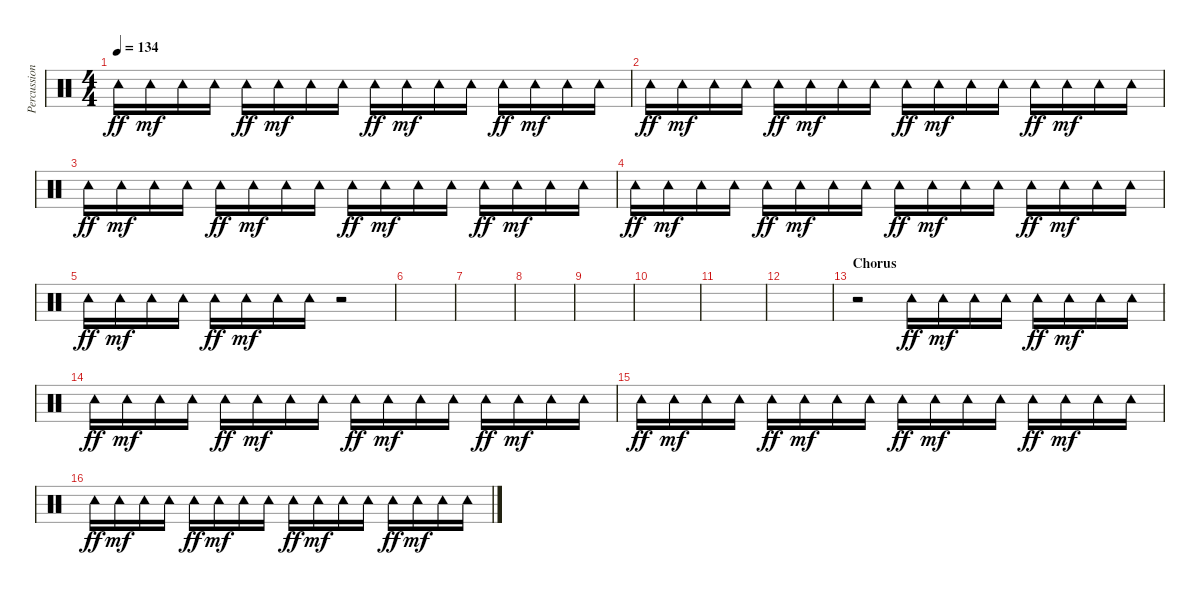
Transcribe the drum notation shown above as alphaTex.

\track ("Percussion" "Percussion") {instrument percussion}
\staff {score}
\articulation defaults
\ts (4 4)
\tempo 134
\clef neutral
\ks c "Tambourine (hit)".16{dy ff} "Tambourine (hit)".16{dy mf} "Tambourine (hit)".16 "Tambourine (hit)".16 "Tambourine (hit)".16{dy ff} "Tambourine (hit)".16{dy mf} "Tambourine (hit)".16 "Tambourine (hit)".16 "Tambourine (hit)".16{dy ff} "Tambourine (hit)".16{dy mf} "Tambourine (hit)".16 "Tambourine (hit)".16 "Tambourine (hit)".16{dy ff} "Tambourine (hit)".16{dy mf} "Tambourine (hit)".16 "Tambourine (hit)".16
|
"Tambourine (hit)".16{dy ff} "Tambourine (hit)".16{dy mf} "Tambourine (hit)".16 "Tambourine (hit)".16 "Tambourine (hit)".16{dy ff} "Tambourine (hit)".16{dy mf} "Tambourine (hit)".16 "Tambourine (hit)".16 "Tambourine (hit)".16{dy ff} "Tambourine (hit)".16{dy mf} "Tambourine (hit)".16 "Tambourine (hit)".16 "Tambourine (hit)".16{dy ff} "Tambourine (hit)".16{dy mf} "Tambourine (hit)".16 "Tambourine (hit)".16 |
"Tambourine (hit)".16{dy ff} "Tambourine (hit)".16{dy mf} "Tambourine (hit)".16 "Tambourine (hit)".16 "Tambourine (hit)".16{dy ff} "Tambourine (hit)".16{dy mf} "Tambourine (hit)".16 "Tambourine (hit)".16 "Tambourine (hit)".16{dy ff} "Tambourine (hit)".16{dy mf} "Tambourine (hit)".16 "Tambourine (hit)".16 "Tambourine (hit)".16{dy ff} "Tambourine (hit)".16{dy mf} "Tambourine (hit)".16 "Tambourine (hit)".16 |
"Tambourine (hit)".16{dy ff} "Tambourine (hit)".16{dy mf} "Tambourine (hit)".16 "Tambourine (hit)".16 "Tambourine (hit)".16{dy ff} "Tambourine (hit)".16{dy mf} "Tambourine (hit)".16 "Tambourine (hit)".16 "Tambourine (hit)".16{dy ff} "Tambourine (hit)".16{dy mf} "Tambourine (hit)".16 "Tambourine (hit)".16 "Tambourine (hit)".16{dy ff} "Tambourine (hit)".16{dy mf} "Tambourine (hit)".16 "Tambourine (hit)".16 |
"Tambourine (hit)".16{dy ff} "Tambourine (hit)".16{dy mf} "Tambourine (hit)".16 "Tambourine (hit)".16 "Tambourine (hit)".16{dy ff} "Tambourine (hit)".16{dy mf} "Tambourine (hit)".16 "Tambourine (hit)".16 r.2 |
|
|
|
|
|
|
|
\section ("" "Chorus")
r.2 "Tambourine (hit)".16{dy ff} "Tambourine (hit)".16{dy mf} "Tambourine (hit)".16 "Tambourine (hit)".16 "Tambourine (hit)".16{dy ff} "Tambourine (hit)".16{dy mf} "Tambourine (hit)".16 "Tambourine (hit)".16 |
"Tambourine (hit)".16{dy ff} "Tambourine (hit)".16{dy mf} "Tambourine (hit)".16 "Tambourine (hit)".16 "Tambourine (hit)".16{dy ff} "Tambourine (hit)".16{dy mf} "Tambourine (hit)".16 "Tambourine (hit)".16 "Tambourine (hit)".16{dy ff} "Tambourine (hit)".16{dy mf} "Tambourine (hit)".16 "Tambourine (hit)".16 "Tambourine (hit)".16{dy ff} "Tambourine (hit)".16{dy mf} "Tambourine (hit)".16 "Tambourine (hit)".16 |
"Tambourine (hit)".16{dy ff} "Tambourine (hit)".16{dy mf} "Tambourine (hit)".16 "Tambourine (hit)".16 "Tambourine (hit)".16{dy ff} "Tambourine (hit)".16{dy mf} "Tambourine (hit)".16 "Tambourine (hit)".16 "Tambourine (hit)".16{dy ff} "Tambourine (hit)".16{dy mf} "Tambourine (hit)".16 "Tambourine (hit)".16 "Tambourine (hit)".16{dy ff} "Tambourine (hit)".16{dy mf} "Tambourine (hit)".16 "Tambourine (hit)".16 |
"Tambourine (hit)".16{dy ff} "Tambourine (hit)".16{dy mf} "Tambourine (hit)".16 "Tambourine (hit)".16 "Tambourine (hit)".16{dy ff} "Tambourine (hit)".16{dy mf} "Tambourine (hit)".16 "Tambourine (hit)".16 "Tambourine (hit)".16{dy ff} "Tambourine (hit)".16{dy mf} "Tambourine (hit)".16 "Tambourine (hit)".16 "Tambourine (hit)".16{dy ff} "Tambourine (hit)".16{dy mf} "Tambourine (hit)".16 "Tambourine (hit)".16
